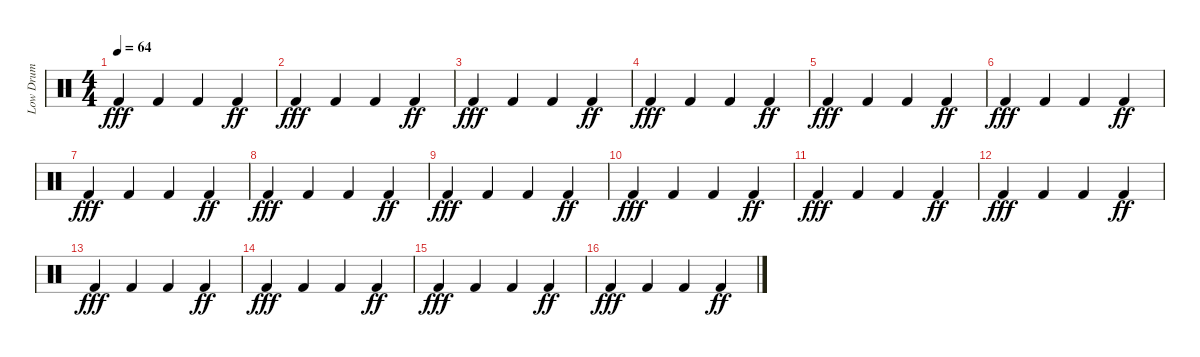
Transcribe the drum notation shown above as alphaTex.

\track ("Low Drum" "Low Drum") {instrument percussion}
\staff {score}
\articulation defaults
\ts (4 4)
\tempo 64
\clef neutral
\ks c "Kick (hit) 2".4{dy fff} "Kick (hit) 2".4 "Kick (hit) 2".4 "Kick (hit) 2".4{dy ff}
|
"Kick (hit) 2".4{dy fff} "Kick (hit) 2".4 "Kick (hit) 2".4 "Kick (hit) 2".4{dy ff} |
"Kick (hit) 2".4{dy fff} "Kick (hit) 2".4 "Kick (hit) 2".4 "Kick (hit) 2".4{dy ff} |
"Kick (hit) 2".4{dy fff} "Kick (hit) 2".4 "Kick (hit) 2".4 "Kick (hit) 2".4{dy ff} |
"Kick (hit) 2".4{dy fff} "Kick (hit) 2".4 "Kick (hit) 2".4 "Kick (hit) 2".4{dy ff} |
"Kick (hit) 2".4{dy fff} "Kick (hit) 2".4 "Kick (hit) 2".4 "Kick (hit) 2".4{dy ff} |
"Kick (hit) 2".4{dy fff} "Kick (hit) 2".4 "Kick (hit) 2".4 "Kick (hit) 2".4{dy ff} |
"Kick (hit) 2".4{dy fff} "Kick (hit) 2".4 "Kick (hit) 2".4 "Kick (hit) 2".4{dy ff} |
"Kick (hit) 2".4{dy fff} "Kick (hit) 2".4 "Kick (hit) 2".4 "Kick (hit) 2".4{dy ff} |
"Kick (hit) 2".4{dy fff} "Kick (hit) 2".4 "Kick (hit) 2".4 "Kick (hit) 2".4{dy ff} |
"Kick (hit) 2".4{dy fff} "Kick (hit) 2".4 "Kick (hit) 2".4 "Kick (hit) 2".4{dy ff} |
"Kick (hit) 2".4{dy fff} "Kick (hit) 2".4 "Kick (hit) 2".4 "Kick (hit) 2".4{dy ff} |
"Kick (hit) 2".4{dy fff} "Kick (hit) 2".4 "Kick (hit) 2".4 "Kick (hit) 2".4{dy ff} |
"Kick (hit) 2".4{dy fff} "Kick (hit) 2".4 "Kick (hit) 2".4 "Kick (hit) 2".4{dy ff} |
"Kick (hit) 2".4{dy fff} "Kick (hit) 2".4 "Kick (hit) 2".4 "Kick (hit) 2".4{dy ff} |
"Kick (hit) 2".4{dy fff} "Kick (hit) 2".4 "Kick (hit) 2".4 "Kick (hit) 2".4{dy ff}
